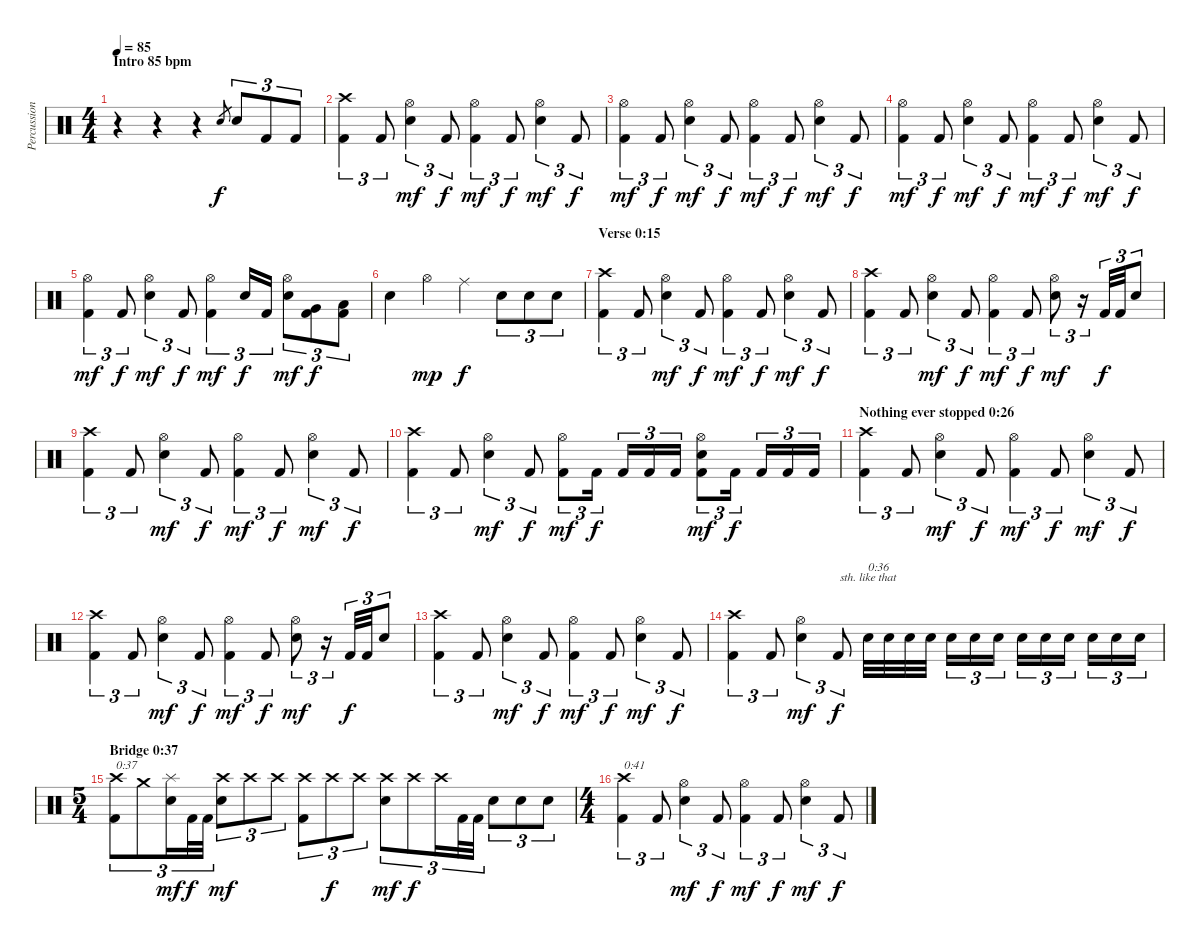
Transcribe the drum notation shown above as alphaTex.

\track ("Percussion" "Percussion") {instrument percussion}
\staff {score}
\articulation defaults
\chord ("sth. like that")
\ts (4 4)
\section ("" "Intro 85 bpm")
\tempo 85
\clef neutral
\ks c
r.4{dy f} r.4 r.4 "Electric Snare (hit)".8{gr} "Electric Snare (hit)".8{tu (3 2)} "Kick (hit) 2".8{tu (3 2)} "Kick (hit) 2".8{tu (3 2)} |
("Kick (hit) 2" "Crash high (hit)").4{tu (3 2)} "Kick (hit) 2".8{tu (3 2)} ("Electric Snare (hit)" "Hi-Hat (open)").4{tu (3 2) dy mf} "Kick (hit) 2".8{tu (3 2) dy f} ("Kick (hit) 2" "Hi-Hat (open)").4{tu (3 2) dy mf} "Kick (hit) 2".8{tu (3 2) dy f} ("Electric Snare (hit)" "Hi-Hat (open)").4{tu (3 2) dy mf} "Kick (hit) 2".8{tu (3 2) dy f} |
("Kick (hit) 2" "Hi-Hat (open)").4{tu (3 2) dy mf} "Kick (hit) 2".8{tu (3 2) dy f} ("Electric Snare (hit)" "Hi-Hat (open)").4{tu (3 2) dy mf} "Kick (hit) 2".8{tu (3 2) dy f} ("Kick (hit) 2" "Hi-Hat (open)").4{tu (3 2) dy mf} "Kick (hit) 2".8{tu (3 2) dy f} ("Electric Snare (hit)" "Hi-Hat (open)").4{tu (3 2) dy mf} "Kick (hit) 2".8{tu (3 2) dy f} |
("Kick (hit) 2" "Hi-Hat (open)").4{tu (3 2) dy mf} "Kick (hit) 2".8{tu (3 2) dy f} ("Electric Snare (hit)" "Hi-Hat (open)").4{tu (3 2) dy mf} "Kick (hit) 2".8{tu (3 2) dy f} ("Kick (hit) 2" "Hi-Hat (open)").4{tu (3 2) dy mf} "Kick (hit) 2".8{tu (3 2) dy f} ("Electric Snare (hit)" "Hi-Hat (open)").4{tu (3 2) dy mf} "Kick (hit) 2".8{tu (3 2) dy f} |
("Kick (hit) 2" "Hi-Hat (open)").4{tu (3 2) dy mf} "Kick (hit) 2".8{tu (3 2) dy f} ("Electric Snare (hit)" "Hi-Hat (open)").4{tu (3 2) dy mf} "Kick (hit) 2".8{tu (3 2) dy f} ("Kick (hit) 2" "Hi-Hat (open)").4{tu (3 2) dy mf} "Electric Snare (hit)".16{tu (3 2) dy f} "Kick (hit) 2".16{tu (3 2)} ("Electric Snare (hit)" "Hi-Hat (open)").8{tu (3 2) dy mf} ("Kick (hit) 2" "Very Low Tom (hit)").8{tu (3 2) dy f} ("Kick (hit) 2" "Low Floor Tom (hit)").8{tu (3 2)} |
"Electric Snare (hit)".4 "Hi-Hat (open)".4{dy mp} "Ride (middle)".4{dy f} "Electric Snare (hit)".8{tu (3 2)} "Electric Snare (hit)".8{tu (3 2)} "Electric Snare (hit)".8{tu (3 2)} |
\section ("" "Verse 0:15")
("Kick (hit) 2" "Crash high (hit)").4{tu (3 2)} "Kick (hit) 2".8{tu (3 2)} ("Electric Snare (hit)" "Hi-Hat (open)").4{tu (3 2) dy mf} "Kick (hit) 2".8{tu (3 2) dy f} ("Kick (hit) 2" "Hi-Hat (open)").4{tu (3 2) dy mf} "Kick (hit) 2".8{tu (3 2) dy f} ("Electric Snare (hit)" "Hi-Hat (open)").4{tu (3 2) dy mf} "Kick (hit) 2".8{tu (3 2) dy f} |
("Kick (hit) 2" "Crash high (hit)").4{tu (3 2)} "Kick (hit) 2".8{tu (3 2)} ("Electric Snare (hit)" "Hi-Hat (open)").4{tu (3 2) dy mf} "Kick (hit) 2".8{tu (3 2) dy f} ("Kick (hit) 2" "Hi-Hat (open)").4{tu (3 2) dy mf} "Kick (hit) 2".8{tu (3 2) dy f} ("Electric Snare (hit)" "Hi-Hat (open)").8{tu (3 2) dy mf} r.16{tu (3 2)} "Kick (hit) 2".32{tu (3 2) dy f} "Kick (hit) 2".32{tu (3 2)} "Electric Snare (hit)".8{tu (3 2)} |
("Kick (hit) 2" "Crash high (hit)").4{tu (3 2)} "Kick (hit) 2".8{tu (3 2)} ("Electric Snare (hit)" "Hi-Hat (open)").4{tu (3 2) dy mf} "Kick (hit) 2".8{tu (3 2) dy f} ("Kick (hit) 2" "Hi-Hat (open)").4{tu (3 2) dy mf} "Kick (hit) 2".8{tu (3 2) dy f} ("Electric Snare (hit)" "Hi-Hat (open)").4{tu (3 2) dy mf} "Kick (hit) 2".8{tu (3 2) dy f} |
("Kick (hit) 2" "Crash high (hit)").4{tu (3 2)} "Kick (hit) 2".8{tu (3 2)} ("Electric Snare (hit)" "Hi-Hat (open)").4{tu (3 2) dy mf} "Kick (hit) 2".8{tu (3 2) dy f} ("Kick (hit) 2" "Hi-Hat (open)").8{tu (3 2) dy mf} "Kick (hit) 2".16{tu (3 2) dy f} "Kick (hit) 2".16{tu (3 2)} "Kick (hit) 2".16{tu (3 2)} "Kick (hit) 2".16{tu (3 2)} ("Kick (hit) 2" "Electric Snare (hit)" "Hi-Hat (open)").8{tu (3 2) dy mf} "Kick (hit) 2".16{tu (3 2) dy f} "Kick (hit) 2".16{tu (3 2)} "Kick (hit) 2".16{tu (3 2)} "Kick (hit) 2".16{tu (3 2)} |
\section ("" "Nothing ever stopped 0:26")
("Kick (hit) 2" "Crash high (hit)").4{tu (3 2)} "Kick (hit) 2".8{tu (3 2)} ("Electric Snare (hit)" "Hi-Hat (open)").4{tu (3 2) dy mf} "Kick (hit) 2".8{tu (3 2) dy f} ("Kick (hit) 2" "Hi-Hat (open)").4{tu (3 2) dy mf} "Kick (hit) 2".8{tu (3 2) dy f} ("Electric Snare (hit)" "Hi-Hat (open)").4{tu (3 2) dy mf} "Kick (hit) 2".8{tu (3 2) dy f} |
("Kick (hit) 2" "Crash high (hit)").4{tu (3 2)} "Kick (hit) 2".8{tu (3 2)} ("Electric Snare (hit)" "Hi-Hat (open)").4{tu (3 2) dy mf} "Kick (hit) 2".8{tu (3 2) dy f} ("Kick (hit) 2" "Hi-Hat (open)").4{tu (3 2) dy mf} "Kick (hit) 2".8{tu (3 2) dy f} ("Electric Snare (hit)" "Hi-Hat (open)").8{tu (3 2) dy mf} r.16{tu (3 2)} "Kick (hit) 2".32{tu (3 2) dy f} "Kick (hit) 2".32{tu (3 2)} "Electric Snare (hit)".8{tu (3 2)} |
("Kick (hit) 2" "Crash high (hit)").4{tu (3 2)} "Kick (hit) 2".8{tu (3 2)} ("Electric Snare (hit)" "Hi-Hat (open)").4{tu (3 2) dy mf} "Kick (hit) 2".8{tu (3 2) dy f} ("Kick (hit) 2" "Hi-Hat (open)").4{tu (3 2) dy mf} "Kick (hit) 2".8{tu (3 2) dy f} ("Electric Snare (hit)" "Hi-Hat (open)").4{tu (3 2) dy mf} "Kick (hit) 2".8{tu (3 2) dy f} |
("Kick (hit) 2" "Crash high (hit)").4{tu (3 2)} "Kick (hit) 2".8{tu (3 2)} ("Electric Snare (hit)" "Hi-Hat (open)").4{tu (3 2) dy mf} "Kick (hit) 2".8{tu (3 2) dy f} "Electric Snare (hit)".32{ch "sth. like that" txt "0:36"} "Electric Snare (hit)".32 "Electric Snare (hit)".32 "Electric Snare (hit)".32 "Electric Snare (hit)".16{tu (3 2)} "Electric Snare (hit)".16{tu (3 2)} "Electric Snare (hit)".16{tu (3 2)} "Electric Snare (hit)".16{tu (3 2)} "Electric Snare (hit)".16{tu (3 2)} "Electric Snare (hit)".16{tu (3 2)} "Electric Snare (hit)".16{tu (3 2)} "Electric Snare (hit)".16{tu (3 2)} "Electric Snare (hit)".16{tu (3 2)} |
\ts (5 4)
\section ("" "Bridge 0:37")
("Kick (hit) 2" "Crash high (hit)").8{tu (3 2) txt "0:37"} "Crash medium (hit)".8{tu (3 2)} ("Electric Snare (hit)" "Splash (hit)").16{tu (3 2) dy mf} "Kick (hit) 2".32{tu (3 2) dy f} "Kick (hit) 2".32{tu (3 2)} ("Electric Snare (hit)" "Crash high (hit)").8{tu (3 2) dy mf} "Crash high (hit)".8{tu (3 2)} "Crash high (hit)".8{tu (3 2)} ("Kick (hit) 2" "Crash high (hit)").8{tu (3 2)} "Crash high (hit)".8{tu (3 2) dy f} "Crash high (hit)".8{tu (3 2)} ("Electric Snare (hit)" "Crash high (hit)").8{tu (3 2) dy mf} "Crash high (hit)".8{tu (3 2) dy f} "Crash high (hit)".16{tu (3 2)} "Kick (hit) 2".32{tu (3 2)} "Kick (hit) 2".32{tu (3 2)} "Electric Snare (hit)".8{tu (3 2)} "Electric Snare (hit)".8{tu (3 2)} "Electric Snare (hit)".8{tu (3 2)} |
\ts (4 4)
("Kick (hit) 2" "Crash high (hit)").4{tu (3 2) txt "0:41"} "Kick (hit) 2".8{tu (3 2)} ("Electric Snare (hit)" "Hi-Hat (open)").4{tu (3 2) dy mf} "Kick (hit) 2".8{tu (3 2) dy f} ("Kick (hit) 2" "Hi-Hat (open)").4{tu (3 2) dy mf} "Kick (hit) 2".8{tu (3 2) dy f} ("Electric Snare (hit)" "Hi-Hat (open)").4{tu (3 2) dy mf} "Kick (hit) 2".8{tu (3 2) dy f}
